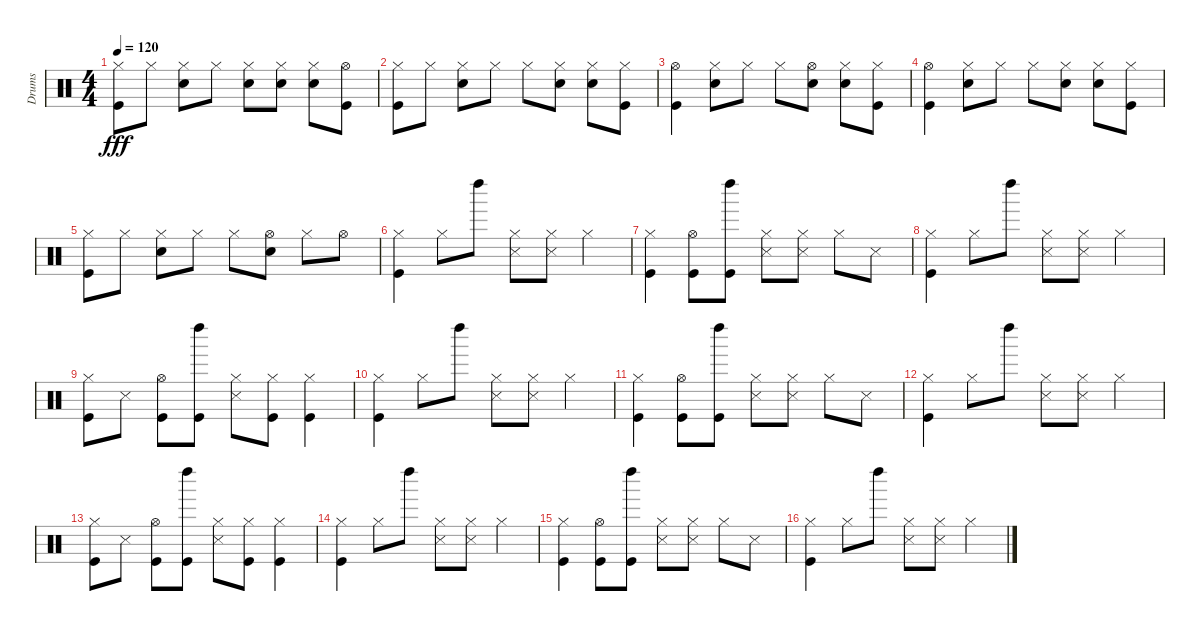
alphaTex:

\track ("Drums" "Drums") {instrument percussion}
\staff {score}
\articulation defaults
\ts (4 4)
\tempo 120
\clef neutral
\ks c
("Hi-Hat (closed)" "Kick (hit)").8{dy fff} "Hi-Hat (closed)".8 ("Hi-Hat (closed)" "Snare (hit) 2").8 "Hi-Hat (closed)".8 ("Hi-Hat (closed)" "Snare (hit) 2").8 ("Hi-Hat (closed)" "Snare (hit) 2").8 ("Hi-Hat (closed)" "Snare (hit) 2").8 ("Hi-Hat (open)" "Kick (hit)").8 |
("Hi-Hat (closed)" "Kick (hit)").8 "Hi-Hat (closed)".8 ("Hi-Hat (closed)" "Snare (hit) 2").8 "Hi-Hat (closed)".8 "Hi-Hat (closed)".8 ("Hi-Hat (closed)" "Snare (hit) 2").8 ("Hi-Hat (closed)" "Snare (hit) 2").8 ("Hi-Hat (closed)" "Kick (hit)").8 |
("Hi-Hat (open)" "Kick (hit)").4 ("Hi-Hat (closed)" "Snare (hit) 2").8 "Hi-Hat (closed)".8 "Hi-Hat (closed)".8 ("Hi-Hat (open)" "Snare (hit) 2").8 ("Hi-Hat (closed)" "Snare (hit) 2").8 ("Hi-Hat (closed)" "Kick (hit)").8 |
("Hi-Hat (open)" "Kick (hit)").4 ("Hi-Hat (closed)" "Snare (hit) 2").8 "Hi-Hat (closed)".8 "Hi-Hat (closed)".8 ("Hi-Hat (closed)" "Snare (hit) 2").8 ("Hi-Hat (closed)" "Snare (hit) 2").8 ("Hi-Hat (closed)" "Kick (hit)").8 |
("Hi-Hat (closed)" "Kick (hit)").8 "Hi-Hat (closed)".8 ("Hi-Hat (closed)" "Snare (hit) 2").8 "Hi-Hat (closed)".8 "Hi-Hat (closed)".8 ("Hi-Hat (open)" "Snare (hit) 2").8 "Hi-Hat (closed)".8 "Hi-Hat (open)".8 |
("Hi-Hat (closed)" "Kick (hit)").4 "Hi-Hat (closed)".8 "Left Maraca (hit)".8 ("Hi-Hat (closed)" "Snare (side stick) 3").8 ("Hi-Hat (closed)" "Snare (side stick) 3").8 "Hi-Hat (closed)".4 |
("Hi-Hat (closed)" "Kick (hit)").4 ("Hi-Hat (open)" "Kick (hit)").8 ("Left Maraca (hit)" "Kick (hit)").8 ("Hi-Hat (closed)" "Snare (side stick) 3").8 ("Hi-Hat (closed)" "Snare (side stick) 3").8 "Hi-Hat (closed)".8 "Snare (side stick) 3".8 |
("Hi-Hat (closed)" "Kick (hit)").4 "Hi-Hat (closed)".8 "Left Maraca (hit)".8 ("Hi-Hat (closed)" "Snare (side stick) 3").8 ("Hi-Hat (closed)" "Snare (side stick) 3").8 "Hi-Hat (closed)".4 |
("Hi-Hat (closed)" "Kick (hit)").8 "Snare (side stick) 3".8 ("Hi-Hat (open)" "Kick (hit)").8 ("Left Maraca (hit)" "Kick (hit)").8 ("Hi-Hat (closed)" "Snare (side stick) 3").8 ("Hi-Hat (closed)" "Kick (hit)").8 ("Hi-Hat (closed)" "Kick (hit)").4 |
("Hi-Hat (closed)" "Kick (hit)").4 "Hi-Hat (closed)".8 "Left Maraca (hit)".8 ("Hi-Hat (closed)" "Snare (side stick) 3").8 ("Hi-Hat (closed)" "Snare (side stick) 3").8 "Hi-Hat (closed)".4 |
("Hi-Hat (closed)" "Kick (hit)").4 ("Hi-Hat (open)" "Kick (hit)").8 ("Left Maraca (hit)" "Kick (hit)").8 ("Hi-Hat (closed)" "Snare (side stick) 3").8 ("Hi-Hat (closed)" "Snare (side stick) 3").8 "Hi-Hat (closed)".8 "Snare (side stick) 3".8 |
("Hi-Hat (closed)" "Kick (hit)").4 "Hi-Hat (closed)".8 "Left Maraca (hit)".8 ("Hi-Hat (closed)" "Snare (side stick) 3").8 ("Hi-Hat (closed)" "Snare (side stick) 3").8 "Hi-Hat (closed)".4 |
("Hi-Hat (closed)" "Kick (hit)").8 "Snare (side stick) 3".8 ("Hi-Hat (open)" "Kick (hit)").8 ("Left Maraca (hit)" "Kick (hit)").8 ("Hi-Hat (closed)" "Snare (side stick) 3").8 ("Hi-Hat (closed)" "Kick (hit)").8 ("Hi-Hat (closed)" "Kick (hit)").4 |
("Hi-Hat (closed)" "Kick (hit)").4 "Hi-Hat (closed)".8 "Left Maraca (hit)".8 ("Hi-Hat (closed)" "Snare (side stick) 3").8 ("Hi-Hat (closed)" "Snare (side stick) 3").8 "Hi-Hat (closed)".4 |
("Hi-Hat (closed)" "Kick (hit)").4 ("Hi-Hat (open)" "Kick (hit)").8 ("Left Maraca (hit)" "Kick (hit)").8 ("Hi-Hat (closed)" "Snare (side stick) 3").8 ("Hi-Hat (closed)" "Snare (side stick) 3").8 "Hi-Hat (closed)".8 "Snare (side stick) 3".8 |
("Hi-Hat (closed)" "Kick (hit)").4 "Hi-Hat (closed)".8 "Left Maraca (hit)".8 ("Hi-Hat (closed)" "Snare (side stick) 3").8 ("Hi-Hat (closed)" "Snare (side stick) 3").8 "Hi-Hat (closed)".4
